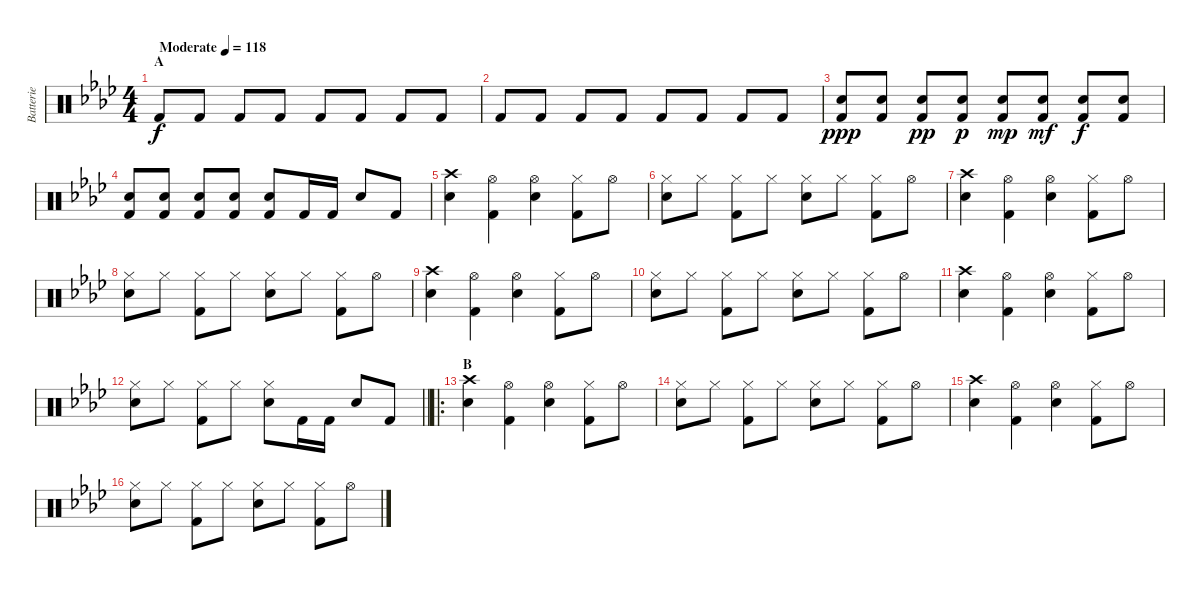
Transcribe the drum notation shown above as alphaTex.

\track ("Batterie" "Batterie") {instrument percussion}
\staff {score}
\articulation defaults
\ts (4 4)
\section ("" "A")
\tempo (118 "Moderate")
\clef neutral
\ks ab "Kick (hit) 2".8{dy f} "Kick (hit) 2".8 "Kick (hit) 2".8 "Kick (hit) 2".8 "Kick (hit) 2".8 "Kick (hit) 2".8 "Kick (hit) 2".8 "Kick (hit) 2".8
|
"Kick (hit) 2".8 "Kick (hit) 2".8 "Kick (hit) 2".8 "Kick (hit) 2".8 "Kick (hit) 2".8 "Kick (hit) 2".8 "Kick (hit) 2".8 "Kick (hit) 2".8 |
("Snare (hit) 2" "Kick (hit) 2").8{dy ppp} ("Snare (hit) 2" "Kick (hit) 2").8 ("Snare (hit) 2" "Kick (hit) 2").8{dy pp} ("Snare (hit) 2" "Kick (hit) 2").8{dy p} ("Snare (hit) 2" "Kick (hit) 2").8{dy mp} ("Snare (hit) 2" "Kick (hit) 2").8{dy mf} ("Snare (hit) 2" "Kick (hit) 2").8{dy f} ("Snare (hit) 2" "Kick (hit) 2").8 |
("Snare (hit) 2" "Kick (hit) 2").8 ("Snare (hit) 2" "Kick (hit) 2").8 ("Snare (hit) 2" "Kick (hit) 2").8 ("Snare (hit) 2" "Kick (hit) 2").8 ("Snare (hit) 2" "Kick (hit) 2").8 "Kick (hit) 2".16 "Kick (hit) 2".16 "Snare (hit) 2".8 "Kick (hit) 2".8 |
("Crash high (hit)" "Snare (hit) 2").4 ("Hi-Hat (open)" "Kick (hit) 2").4 ("Hi-Hat (open)" "Snare (hit) 2").4 ("Hi-Hat (closed)" "Kick (hit) 2").8 "Hi-Hat (open)".8 |
("Hi-Hat (closed)" "Snare (hit) 2").8 "Hi-Hat (closed)".8 ("Hi-Hat (closed)" "Kick (hit) 2").8 "Hi-Hat (closed)".8 ("Hi-Hat (closed)" "Snare (hit) 2").8 "Hi-Hat (closed)".8 ("Hi-Hat (closed)" "Kick (hit) 2").8 "Hi-Hat (open)".8 |
("Crash high (hit)" "Snare (hit) 2").4 ("Hi-Hat (open)" "Kick (hit) 2").4 ("Hi-Hat (open)" "Snare (hit) 2").4 ("Hi-Hat (closed)" "Kick (hit) 2").8 "Hi-Hat (open)".8 |
("Hi-Hat (closed)" "Snare (hit) 2").8 "Hi-Hat (closed)".8 ("Hi-Hat (closed)" "Kick (hit) 2").8 "Hi-Hat (closed)".8 ("Hi-Hat (closed)" "Snare (hit) 2").8 "Hi-Hat (closed)".8 ("Hi-Hat (closed)" "Kick (hit) 2").8 "Hi-Hat (open)".8 |
("Crash high (hit)" "Snare (hit) 2").4 ("Hi-Hat (open)" "Kick (hit) 2").4 ("Hi-Hat (open)" "Snare (hit) 2").4 ("Hi-Hat (closed)" "Kick (hit) 2").8 "Hi-Hat (open)".8 |
("Hi-Hat (closed)" "Snare (hit) 2").8 "Hi-Hat (closed)".8 ("Hi-Hat (closed)" "Kick (hit) 2").8 "Hi-Hat (closed)".8 ("Hi-Hat (closed)" "Snare (hit) 2").8 "Hi-Hat (closed)".8 ("Hi-Hat (closed)" "Kick (hit) 2").8 "Hi-Hat (open)".8 |
("Crash high (hit)" "Snare (hit) 2").4 ("Hi-Hat (open)" "Kick (hit) 2").4 ("Hi-Hat (open)" "Snare (hit) 2").4 ("Hi-Hat (closed)" "Kick (hit) 2").8 "Hi-Hat (open)".8 |
\barLineRight lightlight
("Hi-Hat (closed)" "Snare (hit) 2").8 "Hi-Hat (closed)".8 ("Hi-Hat (closed)" "Kick (hit) 2").8 "Hi-Hat (closed)".8 ("Hi-Hat (closed)" "Snare (hit) 2").8 "Kick (hit) 2".16 "Kick (hit) 2".16 "Snare (hit) 2".8 "Kick (hit) 2".8 |
\ro
\section ("" "B")
("Crash high (hit)" "Snare (hit) 2").4 ("Hi-Hat (open)" "Kick (hit) 2").4 ("Hi-Hat (open)" "Snare (hit) 2").4 ("Hi-Hat (closed)" "Kick (hit) 2").8 "Hi-Hat (open)".8 |
("Hi-Hat (closed)" "Snare (hit) 2").8 "Hi-Hat (closed)".8 ("Hi-Hat (closed)" "Kick (hit) 2").8 "Hi-Hat (closed)".8 ("Hi-Hat (closed)" "Snare (hit) 2").8 "Hi-Hat (closed)".8 ("Hi-Hat (closed)" "Kick (hit) 2").8 "Hi-Hat (open)".8 |
("Crash high (hit)" "Snare (hit) 2").4 ("Hi-Hat (open)" "Kick (hit) 2").4 ("Hi-Hat (open)" "Snare (hit) 2").4 ("Hi-Hat (closed)" "Kick (hit) 2").8 "Hi-Hat (open)".8 |
("Hi-Hat (closed)" "Snare (hit) 2").8 "Hi-Hat (closed)".8 ("Hi-Hat (closed)" "Kick (hit) 2").8 "Hi-Hat (closed)".8 ("Hi-Hat (closed)" "Snare (hit) 2").8 "Hi-Hat (closed)".8 ("Hi-Hat (closed)" "Kick (hit) 2").8 "Hi-Hat (open)".8
